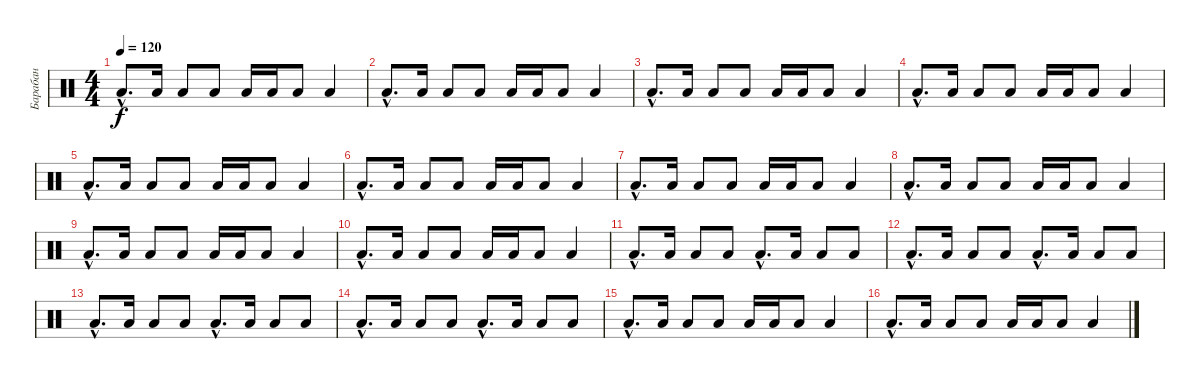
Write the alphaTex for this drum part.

\track ("Барабан" "Барабан") {instrument percussion}
\staff {score}
\articulation defaults
\ts (4 4)
\tempo 120
\clef neutral
\ks c "Low Floor Tom (hit)"{hac}.8{d dy f} "Low Floor Tom (hit)".16 "Low Floor Tom (hit)".8 "Low Floor Tom (hit)".8 "Low Floor Tom (hit)".16 "Low Floor Tom (hit)".16 "Low Floor Tom (hit)".8 "Low Floor Tom (hit)".4
|
"Low Floor Tom (hit)"{hac}.8{d} "Low Floor Tom (hit)".16 "Low Floor Tom (hit)".8 "Low Floor Tom (hit)".8 "Low Floor Tom (hit)".16 "Low Floor Tom (hit)".16 "Low Floor Tom (hit)".8 "Low Floor Tom (hit)".4 |
"Low Floor Tom (hit)"{hac}.8{d} "Low Floor Tom (hit)".16 "Low Floor Tom (hit)".8 "Low Floor Tom (hit)".8 "Low Floor Tom (hit)".16 "Low Floor Tom (hit)".16 "Low Floor Tom (hit)".8 "Low Floor Tom (hit)".4 |
"Low Floor Tom (hit)"{hac}.8{d} "Low Floor Tom (hit)".16 "Low Floor Tom (hit)".8 "Low Floor Tom (hit)".8 "Low Floor Tom (hit)".16 "Low Floor Tom (hit)".16 "Low Floor Tom (hit)".8 "Low Floor Tom (hit)".4 |
"Low Floor Tom (hit)"{hac}.8{d} "Low Floor Tom (hit)".16 "Low Floor Tom (hit)".8 "Low Floor Tom (hit)".8 "Low Floor Tom (hit)".16 "Low Floor Tom (hit)".16 "Low Floor Tom (hit)".8 "Low Floor Tom (hit)".4 |
"Low Floor Tom (hit)"{hac}.8{d} "Low Floor Tom (hit)".16 "Low Floor Tom (hit)".8 "Low Floor Tom (hit)".8 "Low Floor Tom (hit)".16 "Low Floor Tom (hit)".16 "Low Floor Tom (hit)".8 "Low Floor Tom (hit)".4 |
"Low Floor Tom (hit)"{hac}.8{d} "Low Floor Tom (hit)".16 "Low Floor Tom (hit)".8 "Low Floor Tom (hit)".8 "Low Floor Tom (hit)".16 "Low Floor Tom (hit)".16 "Low Floor Tom (hit)".8 "Low Floor Tom (hit)".4 |
"Low Floor Tom (hit)"{hac}.8{d} "Low Floor Tom (hit)".16 "Low Floor Tom (hit)".8 "Low Floor Tom (hit)".8 "Low Floor Tom (hit)".16 "Low Floor Tom (hit)".16 "Low Floor Tom (hit)".8 "Low Floor Tom (hit)".4 |
"Low Floor Tom (hit)"{hac}.8{d} "Low Floor Tom (hit)".16 "Low Floor Tom (hit)".8 "Low Floor Tom (hit)".8 "Low Floor Tom (hit)".16 "Low Floor Tom (hit)".16 "Low Floor Tom (hit)".8 "Low Floor Tom (hit)".4 |
"Low Floor Tom (hit)"{hac}.8{d} "Low Floor Tom (hit)".16 "Low Floor Tom (hit)".8 "Low Floor Tom (hit)".8 "Low Floor Tom (hit)".16 "Low Floor Tom (hit)".16 "Low Floor Tom (hit)".8 "Low Floor Tom (hit)".4 |
"Low Floor Tom (hit)"{hac}.8{d} "Low Floor Tom (hit)".16 "Low Floor Tom (hit)".8 "Low Floor Tom (hit)".8 "Low Floor Tom (hit)"{hac}.8{d} "Low Floor Tom (hit)".16 "Low Floor Tom (hit)".8 "Low Floor Tom (hit)".8 |
"Low Floor Tom (hit)"{hac}.8{d} "Low Floor Tom (hit)".16 "Low Floor Tom (hit)".8 "Low Floor Tom (hit)".8 "Low Floor Tom (hit)"{hac}.8{d} "Low Floor Tom (hit)".16 "Low Floor Tom (hit)".8 "Low Floor Tom (hit)".8 |
"Low Floor Tom (hit)"{hac}.8{d} "Low Floor Tom (hit)".16 "Low Floor Tom (hit)".8 "Low Floor Tom (hit)".8 "Low Floor Tom (hit)"{hac}.8{d} "Low Floor Tom (hit)".16 "Low Floor Tom (hit)".8 "Low Floor Tom (hit)".8 |
"Low Floor Tom (hit)"{hac}.8{d} "Low Floor Tom (hit)".16 "Low Floor Tom (hit)".8 "Low Floor Tom (hit)".8 "Low Floor Tom (hit)"{hac}.8{d} "Low Floor Tom (hit)".16 "Low Floor Tom (hit)".8 "Low Floor Tom (hit)".8 |
"Low Floor Tom (hit)"{hac}.8{d} "Low Floor Tom (hit)".16 "Low Floor Tom (hit)".8 "Low Floor Tom (hit)".8 "Low Floor Tom (hit)".16 "Low Floor Tom (hit)".16 "Low Floor Tom (hit)".8 "Low Floor Tom (hit)".4 |
"Low Floor Tom (hit)"{hac}.8{d} "Low Floor Tom (hit)".16 "Low Floor Tom (hit)".8 "Low Floor Tom (hit)".8 "Low Floor Tom (hit)".16 "Low Floor Tom (hit)".16 "Low Floor Tom (hit)".8 "Low Floor Tom (hit)".4
